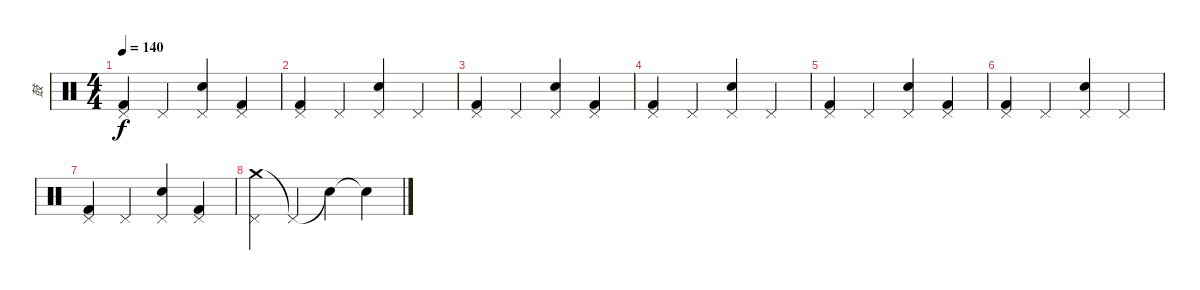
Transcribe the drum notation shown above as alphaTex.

\track ("鼓" "鼓") {instrument percussion}
\staff {score}
\articulation defaults
\ts (4 4)
\tempo 140
\clef neutral
\ks c
("Pedal Hi-Hat (hit)" "Kick (hit) 2").4{dy f} "Pedal Hi-Hat (hit)".4 ("Pedal Hi-Hat (hit)" "Snare (hit) 2").4 ("Pedal Hi-Hat (hit)" "Kick (hit) 2").4 |
("Pedal Hi-Hat (hit)" "Kick (hit) 2").4 "Pedal Hi-Hat (hit)".4 ("Pedal Hi-Hat (hit)" "Snare (hit) 2").4 "Pedal Hi-Hat (hit)".4 |
("Pedal Hi-Hat (hit)" "Kick (hit) 2").4 "Pedal Hi-Hat (hit)".4 ("Pedal Hi-Hat (hit)" "Snare (hit) 2").4 ("Pedal Hi-Hat (hit)" "Kick (hit) 2").4 |
("Pedal Hi-Hat (hit)" "Kick (hit) 2").4 "Pedal Hi-Hat (hit)".4 ("Pedal Hi-Hat (hit)" "Snare (hit) 2").4 "Pedal Hi-Hat (hit)".4 |
("Pedal Hi-Hat (hit)" "Kick (hit) 2").4 "Pedal Hi-Hat (hit)".4 ("Pedal Hi-Hat (hit)" "Snare (hit) 2").4 ("Pedal Hi-Hat (hit)" "Kick (hit) 2").4 |
("Pedal Hi-Hat (hit)" "Kick (hit) 2").4 "Pedal Hi-Hat (hit)".4 ("Pedal Hi-Hat (hit)" "Snare (hit) 2").4 "Pedal Hi-Hat (hit)".4 |
("Pedal Hi-Hat (hit)" "Kick (hit) 2").4 "Pedal Hi-Hat (hit)".4 ("Pedal Hi-Hat (hit)" "Snare (hit) 2").4 ("Pedal Hi-Hat (hit)" "Kick (hit) 2").4 |
("Crash medium (hit)" "Pedal Hi-Hat (hit)").4 "Pedal Hi-Hat (hit)"{t}.4 "Snare (hit)"{t}.4 "Snare (hit)"{t}.4
